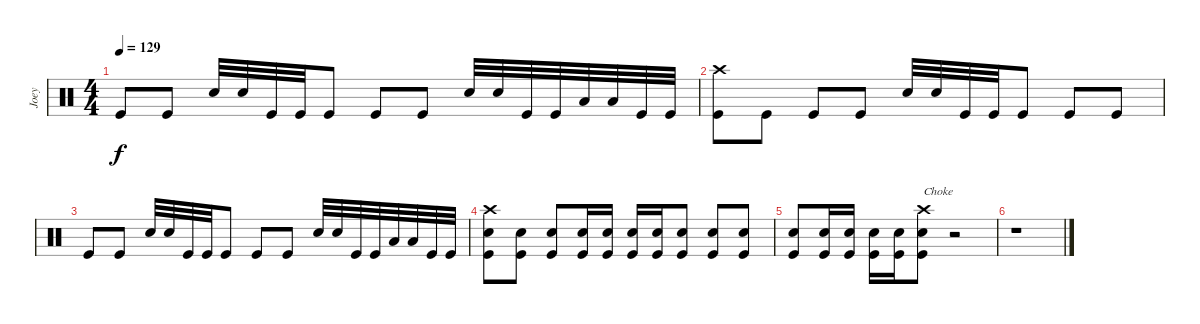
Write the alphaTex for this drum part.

\track ("Joey" "Joey") {instrument percussion}
\staff {score}
\articulation defaults
\ts (4 4)
\tempo 129
\clef neutral
\ks c "Kick (hit)".8{dy f} "Kick (hit)".8 "Snare (hit) 2".32 "Snare (hit) 2".32 "Kick (hit)".32 "Kick (hit)".32 "Kick (hit)".8 "Kick (hit)".8 "Kick (hit)".8 "Snare (hit) 2".32 "Snare (hit) 2".32 "Kick (hit)".32 "Kick (hit)".32 "Low Floor Tom (hit)".32 "Low Floor Tom (hit)".32 "Kick (hit)".32 "Kick (hit)".32
|
("Crash high (hit)" "Kick (hit)").8 "Kick (hit)".8 "Kick (hit)".8 "Kick (hit)".8 "Snare (hit) 2".32 "Snare (hit) 2".32 "Kick (hit)".32 "Kick (hit)".32 "Kick (hit)".8 "Kick (hit)".8 "Kick (hit)".8 |
"Kick (hit)".8 "Kick (hit)".8 "Snare (hit) 2".32 "Snare (hit) 2".32 "Kick (hit)".32 "Kick (hit)".32 "Kick (hit)".8 "Kick (hit)".8 "Kick (hit)".8 "Snare (hit) 2".32 "Snare (hit) 2".32 "Kick (hit)".32 "Kick (hit)".32 "Low Floor Tom (hit)".32 "Low Floor Tom (hit)".32 "Kick (hit)".32 "Kick (hit)".32 |
("Crash high (hit)" "Kick (hit)" "Snare (hit) 2").8 ("Snare (hit) 2" "Kick (hit)").8 ("Snare (hit) 2" "Kick (hit)").8 ("Snare (hit) 2" "Kick (hit)").16 ("Snare (hit) 2" "Kick (hit)").16 ("Snare (hit) 2" "Kick (hit)").16 ("Kick (hit)" "Snare (hit) 2").16 ("Snare (hit) 2" "Kick (hit)").8 ("Kick (hit)" "Snare (hit) 2").8 ("Kick (hit)" "Snare (hit) 2").8 |
("Snare (hit) 2" "Kick (hit)").8 ("Snare (hit) 2" "Kick (hit)").16 ("Snare (hit) 2" "Kick (hit)").16 ("Snare (hit) 2" "Kick (hit)").16 ("Kick (hit)" "Snare (hit) 2").16 ("Snare (hit) 2" "Kick (hit)" "Crash high (hit)").8{txt "Choke"} r.2 |
r.1
